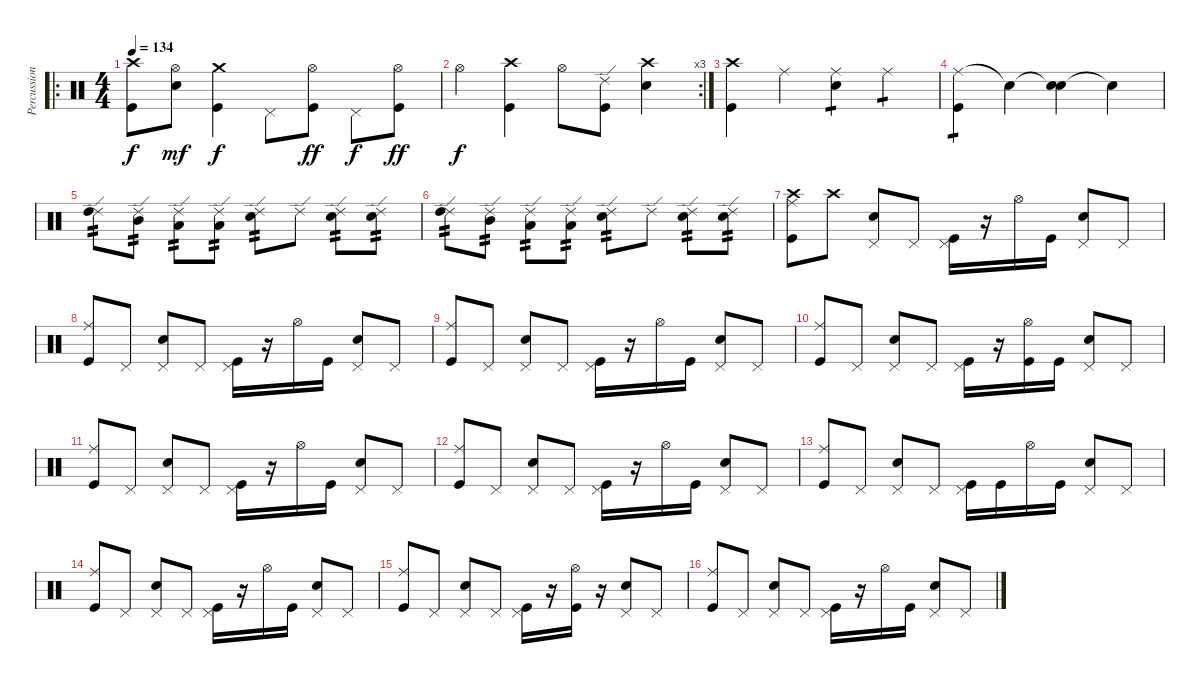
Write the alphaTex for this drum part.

\track ("Percussion" "Percussion") {instrument percussion}
\staff {score}
\articulation defaults
\ro
\ts (4 4)
\tempo 134
\clef neutral
\ks c
("Crash high (hit)" "Kick (hit)").8{dy f} ("Hi-Hat (open)" "Electric Snare (hit)").8{dy mf} ("Crash medium (hit)" "Kick (hit)").4{dy f} "Pedal Hi-Hat (hit)".8 ("Hi-Hat (open)" "Kick (hit)").8{dy ff} "Pedal Hi-Hat (hit)".8{dy f} ("Hi-Hat (open)" "Kick (hit)").8{dy ff} |
\rc 3 "Hi-Hat (open)".4{dy f}
("Crash high (hit)" "Kick (hit)").4 "Hi-Hat (open)".8 ("Ride (edge) 2" "Kick (hit)").8 ("Crash high (hit)" "Electric Snare (hit)").4 |
("Crash high (hit)" "Kick (hit)").4 "Ride (middle)".4 ("Ride (middle)" "Electric Snare (hit)").4{tp 1} "Ride (middle)".4{tp 1} |
("Ride (middle)" "Kick (hit)").4{tp 1} "Snare (hit)"{t}.4 ("Snare (hit)"{t} "Electric Snare (hit)").4 "Snare (hit)"{t}.4 |
("Ride (edge) 2" "High Tom (hit)").8{tp 2} ("Ride (edge) 2" "Mid Tom (hit)").8{tp 2} ("Ride (edge) 2" "Low Tom (hit)").8{tp 2} ("Ride (edge) 2" "Low Floor Tom (hit)").8{tp 2} ("Ride (edge) 2" "Electric Snare (hit)").8{tp 2} "Ride (edge) 2".8 ("Ride (edge) 2" "Electric Snare (hit)").8{tp 2} ("Ride (edge) 2" "Electric Snare (hit)").8{tp 2} |
("Ride (edge) 2" "High Tom (hit)").8{tp 2} ("Ride (edge) 2" "Mid Tom (hit)").8{tp 2} ("Ride (edge) 2" "Low Tom (hit)").8{tp 2} ("Ride (edge) 2" "Low Floor Tom (hit)").8{tp 2} ("Ride (edge) 2" "Electric Snare (hit)").8{tp 2} "Ride (edge) 2".8 ("Ride (edge) 2" "Electric Snare (hit)").8{tp 2} ("Ride (edge) 2" "Electric Snare (hit)").8{tp 2} |
("Crash high (hit)" "Ride (middle)" "Kick (hit)").8 "Crash high (hit)".8 ("Pedal Hi-Hat (hit)" "Electric Snare (hit)").8 "Pedal Hi-Hat (hit)".8 ("Pedal Hi-Hat (hit)" "Kick (hit)").16 r.16 "Hi-Hat (open)".16 "Kick (hit)".16 ("Pedal Hi-Hat (hit)" "Electric Snare (hit)").8 "Pedal Hi-Hat (hit)".8 |
("Ride (middle)" "Kick (hit)").8 "Pedal Hi-Hat (hit)".8 ("Pedal Hi-Hat (hit)" "Electric Snare (hit)").8 "Pedal Hi-Hat (hit)".8 ("Pedal Hi-Hat (hit)" "Kick (hit)").16 r.16 "Hi-Hat (open)".16 "Kick (hit)".16 ("Pedal Hi-Hat (hit)" "Electric Snare (hit)").8 "Pedal Hi-Hat (hit)".8 |
("Ride (middle)" "Kick (hit)").8 "Pedal Hi-Hat (hit)".8 ("Pedal Hi-Hat (hit)" "Electric Snare (hit)").8 "Pedal Hi-Hat (hit)".8 ("Pedal Hi-Hat (hit)" "Kick (hit)").16 r.16 "Hi-Hat (open)".16 "Kick (hit)".16 ("Pedal Hi-Hat (hit)" "Electric Snare (hit)").8 "Pedal Hi-Hat (hit)".8 |
("Ride (middle)" "Kick (hit)").8 "Pedal Hi-Hat (hit)".8 ("Pedal Hi-Hat (hit)" "Electric Snare (hit)").8 "Pedal Hi-Hat (hit)".8 ("Pedal Hi-Hat (hit)" "Kick (hit)").16 r.16 ("Hi-Hat (open)" "Kick (hit)").16 "Kick (hit)".16 ("Pedal Hi-Hat (hit)" "Electric Snare (hit)").8 "Pedal Hi-Hat (hit)".8 |
("Ride (middle)" "Kick (hit)").8 "Pedal Hi-Hat (hit)".8 ("Pedal Hi-Hat (hit)" "Electric Snare (hit)").8 "Pedal Hi-Hat (hit)".8 ("Pedal Hi-Hat (hit)" "Kick (hit)").16 r.16 "Hi-Hat (open)".16 "Kick (hit)".16 ("Pedal Hi-Hat (hit)" "Electric Snare (hit)").8 "Pedal Hi-Hat (hit)".8 |
("Ride (middle)" "Kick (hit)").8 "Pedal Hi-Hat (hit)".8 ("Pedal Hi-Hat (hit)" "Electric Snare (hit)").8 "Pedal Hi-Hat (hit)".8 ("Pedal Hi-Hat (hit)" "Kick (hit)").16 r.16 "Hi-Hat (open)".16 "Kick (hit)".16 ("Pedal Hi-Hat (hit)" "Electric Snare (hit)").8 "Pedal Hi-Hat (hit)".8 |
("Ride (middle)" "Kick (hit)").8 "Pedal Hi-Hat (hit)".8 ("Pedal Hi-Hat (hit)" "Electric Snare (hit)").8 "Pedal Hi-Hat (hit)".8 ("Pedal Hi-Hat (hit)" "Kick (hit)").16 "Kick (hit)".16 "Hi-Hat (open)".16 "Kick (hit)".16 ("Pedal Hi-Hat (hit)" "Electric Snare (hit)").8 "Pedal Hi-Hat (hit)".8 |
("Ride (middle)" "Kick (hit)").8 "Pedal Hi-Hat (hit)".8 ("Pedal Hi-Hat (hit)" "Electric Snare (hit)").8 "Pedal Hi-Hat (hit)".8 ("Pedal Hi-Hat (hit)" "Kick (hit)").16 r.16 "Hi-Hat (open)".16 "Kick (hit)".16 ("Pedal Hi-Hat (hit)" "Electric Snare (hit)").8 "Pedal Hi-Hat (hit)".8 |
("Ride (middle)" "Kick (hit)").8 "Pedal Hi-Hat (hit)".8 ("Pedal Hi-Hat (hit)" "Electric Snare (hit)").8 "Pedal Hi-Hat (hit)".8 ("Pedal Hi-Hat (hit)" "Kick (hit)").16 r.16 ("Hi-Hat (open)" "Kick (hit)").16 r.16 ("Pedal Hi-Hat (hit)" "Electric Snare (hit)").8 "Pedal Hi-Hat (hit)".8 |
("Ride (middle)" "Kick (hit)").8 "Pedal Hi-Hat (hit)".8 ("Pedal Hi-Hat (hit)" "Electric Snare (hit)").8 "Pedal Hi-Hat (hit)".8 ("Pedal Hi-Hat (hit)" "Kick (hit)").16 r.16 "Hi-Hat (open)".16 "Kick (hit)".16 ("Pedal Hi-Hat (hit)" "Electric Snare (hit)").8 "Pedal Hi-Hat (hit)".8
